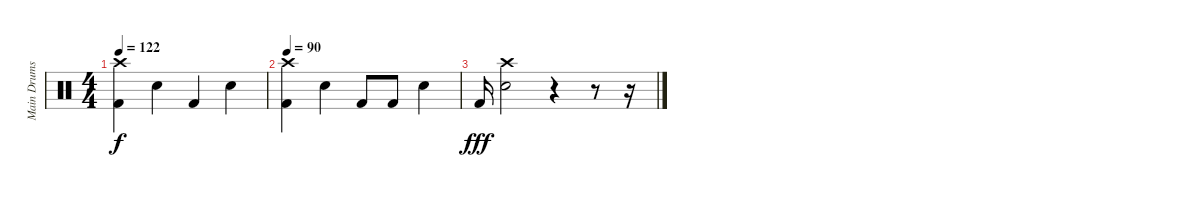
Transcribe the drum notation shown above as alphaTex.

\track ("Main Drums" "Main Drums") {instrument percussion}
\staff {score}
\articulation defaults
\ts (4 4)
\tempo 122
\clef neutral
\ks c
("Kick (hit) 2" "Crash high (hit)").4{dy f} "Snare (hit) 2".4 "Kick (hit) 2".4 "Snare (hit) 2".4 |
\tempo 90
("Kick (hit) 2" "Crash high (hit)").4 "Snare (hit) 2".4 "Kick (hit) 2".8 "Kick (hit) 2".8 "Snare (hit) 2".4 |
"Kick (hit) 2".16{dy fff} ("Crash high (hit)" "Snare (hit) 2").2 r.4 r.8 r.16
